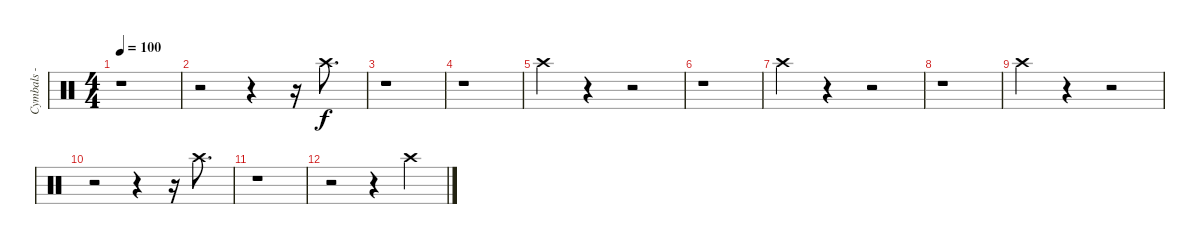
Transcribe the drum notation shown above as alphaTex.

\track ("Cymbals - crash - center" "Cymbals - ") {instrument percussion}
\staff {score}
\articulation defaults
\ts (4 4)
\tempo 100
\clef neutral
\ks c
r.1{dy f} |
r.2 r.4 r.16 "Crash high (hit)".8{d} |
r.1 |
r.1 |
"Crash high (hit)".4 r.4 r.2 |
r.1 |
"Crash high (hit)".4 r.4 r.2 |
r.1 |
"Crash high (hit)".4 r.4 r.2 |
r.2 r.4 r.16 "Crash high (hit)".8{d} |
r.1 |
r.2 r.4 "Crash high (hit)".4
